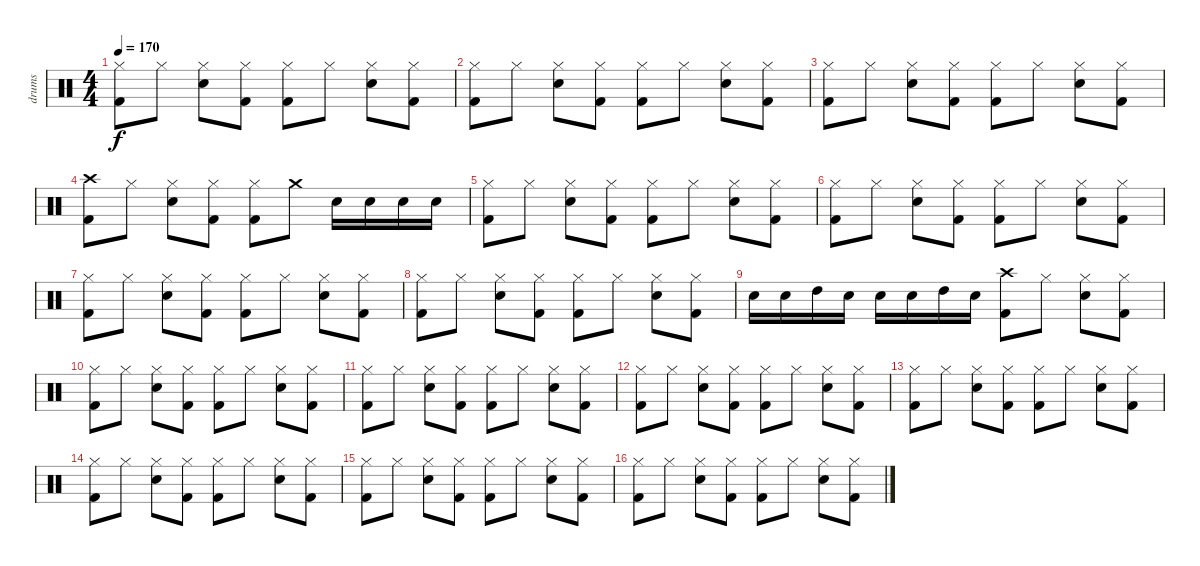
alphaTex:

\track ("drums" "drums") {instrument percussion}
\staff {score}
\articulation defaults
\ts (4 4)
\tempo 170
\clef neutral
\ks c
("Hi-Hat (closed)" "Kick (hit) 2").8{dy f} "Hi-Hat (closed)".8 ("Hi-Hat (closed)" "Snare (hit) 2").8 ("Hi-Hat (closed)" "Kick (hit) 2").8 ("Hi-Hat (closed)" "Kick (hit) 2").8 "Hi-Hat (closed)".8 ("Hi-Hat (closed)" "Snare (hit) 2").8 ("Hi-Hat (closed)" "Kick (hit) 2").8 |
("Hi-Hat (closed)" "Kick (hit) 2").8 "Hi-Hat (closed)".8 ("Hi-Hat (closed)" "Snare (hit) 2").8 ("Hi-Hat (closed)" "Kick (hit) 2").8 ("Hi-Hat (closed)" "Kick (hit) 2").8 "Hi-Hat (closed)".8 ("Hi-Hat (closed)" "Snare (hit) 2").8 ("Hi-Hat (closed)" "Kick (hit) 2").8 |
("Hi-Hat (closed)" "Kick (hit) 2").8 "Hi-Hat (closed)".8 ("Hi-Hat (closed)" "Snare (hit) 2").8 ("Hi-Hat (closed)" "Kick (hit) 2").8 ("Hi-Hat (closed)" "Kick (hit) 2").8 "Hi-Hat (closed)".8 ("Hi-Hat (closed)" "Snare (hit) 2").8 ("Hi-Hat (closed)" "Kick (hit) 2").8 |
("Crash high (hit)" "Kick (hit) 2").8 "Hi-Hat (closed)".8 ("Hi-Hat (closed)" "Snare (hit) 2").8 ("Hi-Hat (closed)" "Kick (hit) 2").8 ("Hi-Hat (closed)" "Kick (hit) 2").8 "Crash medium (hit)".8 "Snare (hit) 2".16 "Snare (hit) 2".16 "Snare (hit) 2".16 "Snare (hit) 2".16 |
("Hi-Hat (closed)" "Kick (hit) 2").8 "Hi-Hat (closed)".8 ("Hi-Hat (closed)" "Snare (hit) 2").8 ("Hi-Hat (closed)" "Kick (hit) 2").8 ("Hi-Hat (closed)" "Kick (hit) 2").8 "Hi-Hat (closed)".8 ("Hi-Hat (closed)" "Snare (hit) 2").8 ("Hi-Hat (closed)" "Kick (hit) 2").8 |
("Hi-Hat (closed)" "Kick (hit) 2").8 "Hi-Hat (closed)".8 ("Hi-Hat (closed)" "Snare (hit) 2").8 ("Hi-Hat (closed)" "Kick (hit) 2").8 ("Hi-Hat (closed)" "Kick (hit) 2").8 "Hi-Hat (closed)".8 ("Hi-Hat (closed)" "Snare (hit) 2").8 ("Hi-Hat (closed)" "Kick (hit) 2").8 |
("Hi-Hat (closed)" "Kick (hit) 2").8 "Hi-Hat (closed)".8 ("Hi-Hat (closed)" "Snare (hit) 2").8 ("Hi-Hat (closed)" "Kick (hit) 2").8 ("Hi-Hat (closed)" "Kick (hit) 2").8 "Hi-Hat (closed)".8 ("Hi-Hat (closed)" "Snare (hit) 2").8 ("Hi-Hat (closed)" "Kick (hit) 2").8 |
("Hi-Hat (closed)" "Kick (hit) 2").8 "Hi-Hat (closed)".8 ("Hi-Hat (closed)" "Snare (hit) 2").8 ("Hi-Hat (closed)" "Kick (hit) 2").8 ("Hi-Hat (closed)" "Kick (hit) 2").8 "Hi-Hat (closed)".8 ("Hi-Hat (closed)" "Snare (hit) 2").8 ("Hi-Hat (closed)" "Kick (hit) 2").8 |
"Snare (hit) 2".16 "Snare (hit) 2".16 "High Tom (hit)".16 "Snare (hit) 2".16 "Snare (hit) 2".16 "Snare (hit) 2".16 "High Tom (hit)".16 "Snare (hit) 2".16 ("Crash high (hit)" "Kick (hit) 2").8 "Hi-Hat (closed)".8 ("Hi-Hat (closed)" "Snare (hit) 2").8 ("Hi-Hat (closed)" "Kick (hit) 2").8 |
("Hi-Hat (closed)" "Kick (hit) 2").8 "Hi-Hat (closed)".8 ("Hi-Hat (closed)" "Snare (hit) 2").8 ("Hi-Hat (closed)" "Kick (hit) 2").8 ("Hi-Hat (closed)" "Kick (hit) 2").8 "Hi-Hat (closed)".8 ("Hi-Hat (closed)" "Snare (hit) 2").8 ("Hi-Hat (closed)" "Kick (hit) 2").8 |
("Hi-Hat (closed)" "Kick (hit) 2").8 "Hi-Hat (closed)".8 ("Hi-Hat (closed)" "Snare (hit) 2").8 ("Hi-Hat (closed)" "Kick (hit) 2").8 ("Hi-Hat (closed)" "Kick (hit) 2").8 "Hi-Hat (closed)".8 ("Hi-Hat (closed)" "Snare (hit) 2").8 ("Hi-Hat (closed)" "Kick (hit) 2").8 |
("Hi-Hat (closed)" "Kick (hit) 2").8 "Hi-Hat (closed)".8 ("Hi-Hat (closed)" "Snare (hit) 2").8 ("Hi-Hat (closed)" "Kick (hit) 2").8 ("Hi-Hat (closed)" "Kick (hit) 2").8 "Hi-Hat (closed)".8 ("Hi-Hat (closed)" "Snare (hit) 2").8 ("Hi-Hat (closed)" "Kick (hit) 2").8 |
("Hi-Hat (closed)" "Kick (hit) 2").8 "Hi-Hat (closed)".8 ("Hi-Hat (closed)" "Snare (hit) 2").8 ("Hi-Hat (closed)" "Kick (hit) 2").8 ("Hi-Hat (closed)" "Kick (hit) 2").8 "Hi-Hat (closed)".8 ("Hi-Hat (closed)" "Snare (hit) 2").8 ("Hi-Hat (closed)" "Kick (hit) 2").8 |
("Hi-Hat (closed)" "Kick (hit) 2").8 "Hi-Hat (closed)".8 ("Hi-Hat (closed)" "Snare (hit) 2").8 ("Hi-Hat (closed)" "Kick (hit) 2").8 ("Hi-Hat (closed)" "Kick (hit) 2").8 "Hi-Hat (closed)".8 ("Hi-Hat (closed)" "Snare (hit) 2").8 ("Hi-Hat (closed)" "Kick (hit) 2").8 |
("Hi-Hat (closed)" "Kick (hit) 2").8 "Hi-Hat (closed)".8 ("Hi-Hat (closed)" "Snare (hit) 2").8 ("Hi-Hat (closed)" "Kick (hit) 2").8 ("Hi-Hat (closed)" "Kick (hit) 2").8 "Hi-Hat (closed)".8 ("Hi-Hat (closed)" "Snare (hit) 2").8 ("Hi-Hat (closed)" "Kick (hit) 2").8 |
("Hi-Hat (closed)" "Kick (hit) 2").8 "Hi-Hat (closed)".8 ("Hi-Hat (closed)" "Snare (hit) 2").8 ("Hi-Hat (closed)" "Kick (hit) 2").8 ("Hi-Hat (closed)" "Kick (hit) 2").8 "Hi-Hat (closed)".8 ("Hi-Hat (closed)" "Snare (hit) 2").8 ("Hi-Hat (closed)" "Kick (hit) 2").8
